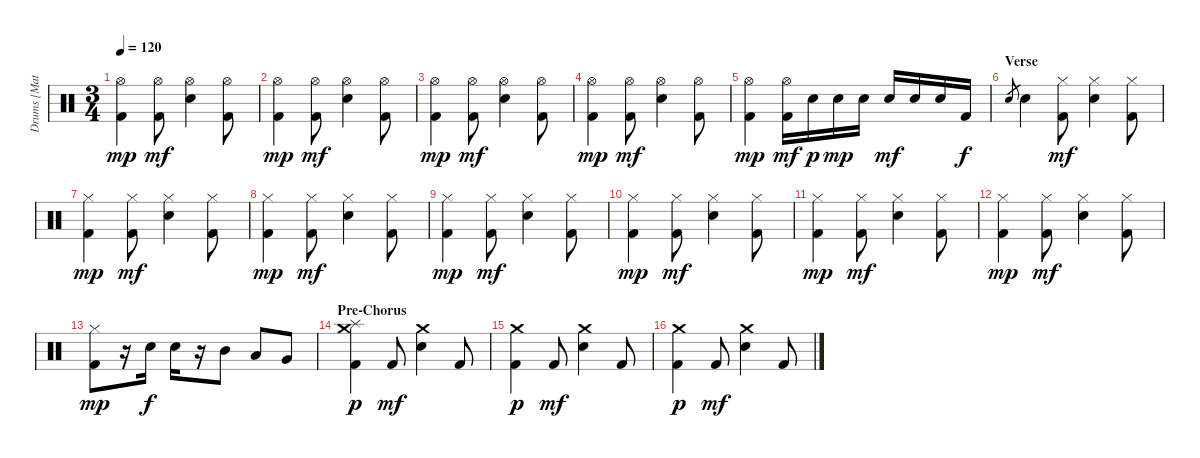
\track ("Drums [Matt]" "Drums [Mat") {instrument percussion}
\staff {score}
\articulation defaults
\ts (3 4)
\tempo 120
\clef neutral
\ks c
("Hi-Hat (open)" "Kick (hit) 2").4{dy mp} ("Hi-Hat (open)" "Kick (hit) 2").8{dy mf} ("Hi-Hat (open)" "Snare (hit) 2").4 ("Hi-Hat (open)" "Kick (hit) 2").8 |
("Hi-Hat (open)" "Kick (hit) 2").4{dy mp} ("Hi-Hat (open)" "Kick (hit) 2").8{dy mf} ("Hi-Hat (open)" "Snare (hit) 2").4 ("Hi-Hat (open)" "Kick (hit) 2").8 |
("Hi-Hat (open)" "Kick (hit) 2").4{dy mp} ("Hi-Hat (open)" "Kick (hit) 2").8{dy mf} ("Hi-Hat (open)" "Snare (hit) 2").4 ("Hi-Hat (open)" "Kick (hit) 2").8 |
("Hi-Hat (open)" "Kick (hit) 2").4{dy mp} ("Hi-Hat (open)" "Kick (hit) 2").8{dy mf} ("Hi-Hat (open)" "Snare (hit) 2").4 ("Hi-Hat (open)" "Kick (hit) 2").8 |
("Hi-Hat (open)" "Kick (hit) 2").4{dy mp} ("Hi-Hat (open)" "Kick (hit) 2").16{dy mf} "Snare (hit) 2".16{dy p} "Snare (hit) 2".16{dy mp} "Snare (hit) 2".16 "Snare (hit) 2".16{dy mf} "Snare (hit) 2".16 "Snare (hit) 2".16 "Kick (hit) 2".16{dy f} |
\section ("" "Verse")
"Snare (hit) 2".8{gr} "Snare (hit) 2".4 ("Hi-Hat (closed)" "Kick (hit) 2").8{dy mf} ("Hi-Hat (closed)" "Snare (hit) 2").4 ("Hi-Hat (closed)" "Kick (hit) 2").8 |
("Hi-Hat (closed)" "Kick (hit) 2").4{dy mp} ("Hi-Hat (closed)" "Kick (hit) 2").8{dy mf} ("Hi-Hat (closed)" "Snare (hit) 2").4 ("Hi-Hat (closed)" "Kick (hit) 2").8 |
("Hi-Hat (closed)" "Kick (hit) 2").4{dy mp} ("Hi-Hat (closed)" "Kick (hit) 2").8{dy mf} ("Hi-Hat (closed)" "Snare (hit) 2").4 ("Hi-Hat (closed)" "Kick (hit) 2").8 |
("Hi-Hat (closed)" "Kick (hit) 2").4{dy mp} ("Hi-Hat (closed)" "Kick (hit) 2").8{dy mf} ("Hi-Hat (closed)" "Snare (hit) 2").4 ("Hi-Hat (closed)" "Kick (hit) 2").8 |
("Hi-Hat (closed)" "Kick (hit) 2").4{dy mp} ("Hi-Hat (closed)" "Kick (hit) 2").8{dy mf} ("Hi-Hat (closed)" "Snare (hit) 2").4 ("Hi-Hat (closed)" "Kick (hit) 2").8 |
("Hi-Hat (closed)" "Kick (hit) 2").4{dy mp} ("Hi-Hat (closed)" "Kick (hit) 2").8{dy mf} ("Hi-Hat (closed)" "Snare (hit) 2").4 ("Hi-Hat (closed)" "Kick (hit) 2").8 |
("Hi-Hat (closed)" "Kick (hit) 2").4{dy mp} ("Hi-Hat (closed)" "Kick (hit) 2").8{dy mf} ("Hi-Hat (closed)" "Snare (hit) 2").4 ("Hi-Hat (closed)" "Kick (hit) 2").8 |
("Hi-Hat (closed)" "Kick (hit) 2").8{dy mp} r.16 "Snare (hit) 2".16{dy f} "Snare (hit) 2".16 r.16 "Mid Tom (hit)".8 "Low Tom (hit)".8 "Very Low Tom (hit)".8 |
\section ("" "Pre-Chorus")
("Splash (hit)" "Crash medium (hit)" "Kick (hit) 2").4{dy p} "Kick (hit) 2".8{dy mf} ("Crash medium (hit)" "Snare (hit) 2").4 "Kick (hit) 2".8 |
("Crash medium (hit)" "Kick (hit) 2").4{dy p} "Kick (hit) 2".8{dy mf} ("Crash medium (hit)" "Snare (hit) 2").4 "Kick (hit) 2".8 |
("Crash medium (hit)" "Kick (hit) 2").4{dy p} "Kick (hit) 2".8{dy mf} ("Crash medium (hit)" "Snare (hit) 2").4 "Kick (hit) 2".8
